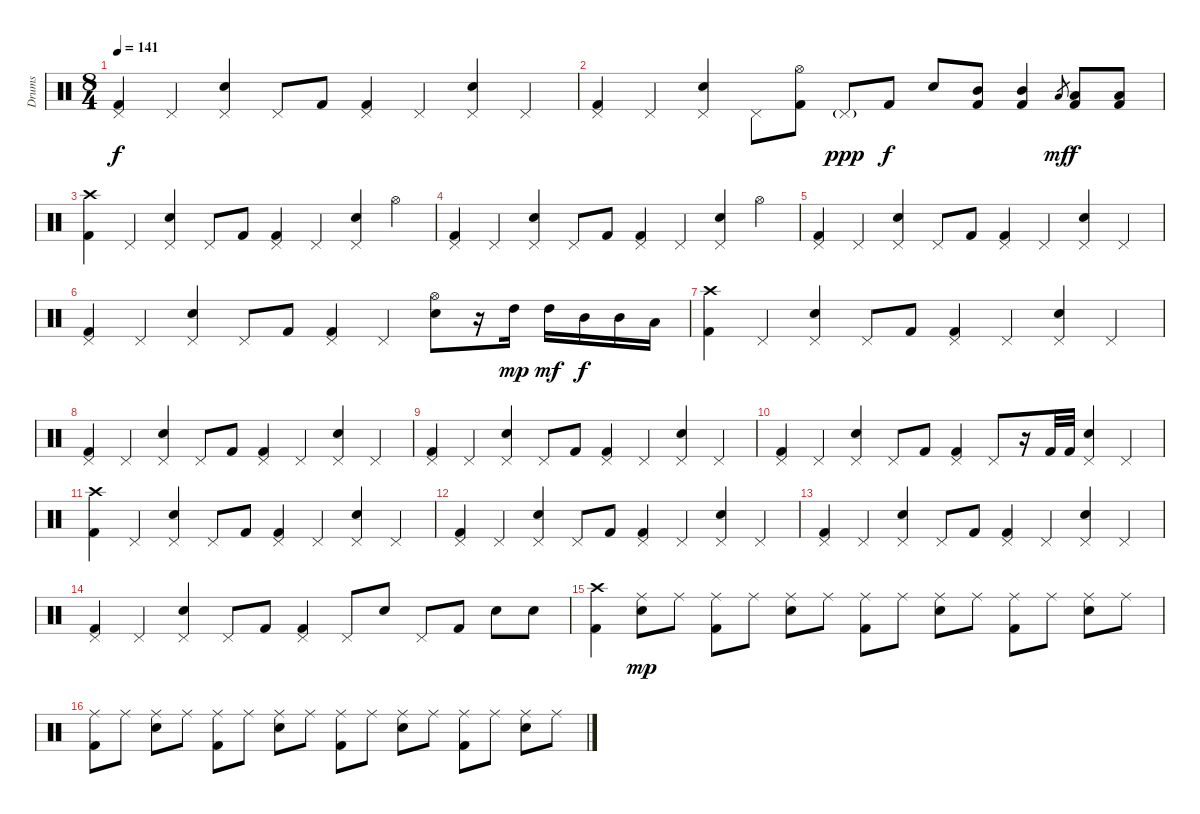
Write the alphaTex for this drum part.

\track ("Drums" "Drums") {instrument percussion}
\staff {score}
\articulation defaults
\ts (8 4)
\tempo 141
\clef neutral
\ks c
("Pedal Hi-Hat (hit)" "Kick (hit) 2").4{dy f} "Pedal Hi-Hat (hit)".4 ("Pedal Hi-Hat (hit)" "Snare (hit) 2").4 "Pedal Hi-Hat (hit)".8 "Kick (hit) 2".8 ("Pedal Hi-Hat (hit)" "Kick (hit) 2").4 "Pedal Hi-Hat (hit)".4 ("Pedal Hi-Hat (hit)" "Snare (hit) 2").4 "Pedal Hi-Hat (hit)".4 |
("Pedal Hi-Hat (hit)" "Kick (hit) 2").4 "Pedal Hi-Hat (hit)".4 ("Pedal Hi-Hat (hit)" "Snare (hit) 2").4 "Pedal Hi-Hat (hit)".8 ("Hi-Hat (open)" "Kick (hit) 2").8 "Pedal Hi-Hat (hit)"{g}.8{dy ppp} "Kick (hit) 2".8{dy f} "Snare (hit) 2".8 ("Mid Tom (hit)" "Kick (hit) 2").8 ("Mid Tom (hit)" "Kick (hit) 2").4 "Low Tom (hit)".8{gr dy mf} ("Low Tom (hit)" "Kick (hit) 2").8{dy f} ("Low Tom (hit)" "Kick (hit) 2").8 |
("Crash high (hit)" "Kick (hit) 2").4 "Pedal Hi-Hat (hit)".4 ("Pedal Hi-Hat (hit)" "Snare (hit) 2").4 "Pedal Hi-Hat (hit)".8 "Kick (hit) 2".8 ("Pedal Hi-Hat (hit)" "Kick (hit) 2").4 "Pedal Hi-Hat (hit)".4 ("Pedal Hi-Hat (hit)" "Snare (hit) 2").4 "Hi-Hat (open)".4 |
("Pedal Hi-Hat (hit)" "Kick (hit) 2").4 "Pedal Hi-Hat (hit)".4 ("Pedal Hi-Hat (hit)" "Snare (hit) 2").4 "Pedal Hi-Hat (hit)".8 "Kick (hit) 2".8 ("Pedal Hi-Hat (hit)" "Kick (hit) 2").4 "Pedal Hi-Hat (hit)".4 ("Pedal Hi-Hat (hit)" "Snare (hit) 2").4 "Hi-Hat (open)".4 |
("Pedal Hi-Hat (hit)" "Kick (hit) 2").4 "Pedal Hi-Hat (hit)".4 ("Pedal Hi-Hat (hit)" "Snare (hit) 2").4 "Pedal Hi-Hat (hit)".8 "Kick (hit) 2".8 ("Pedal Hi-Hat (hit)" "Kick (hit) 2").4 "Pedal Hi-Hat (hit)".4 ("Pedal Hi-Hat (hit)" "Snare (hit) 2").4 "Pedal Hi-Hat (hit)".4 |
("Pedal Hi-Hat (hit)" "Kick (hit) 2").4 "Pedal Hi-Hat (hit)".4 ("Pedal Hi-Hat (hit)" "Snare (hit) 2").4 "Pedal Hi-Hat (hit)".8 "Kick (hit) 2".8 ("Pedal Hi-Hat (hit)" "Kick (hit) 2").4 "Pedal Hi-Hat (hit)".4 ("Hi-Hat (open)" "Snare (hit) 2").8 r.16 "High Tom (hit)".16{dy mp} "High Tom (hit)".16{dy mf} "Mid Tom (hit)".16{dy f} "Mid Tom (hit)".16 "Low Tom (hit)".16 |
("Crash high (hit)" "Kick (hit) 2").4 "Pedal Hi-Hat (hit)".4 ("Pedal Hi-Hat (hit)" "Snare (hit) 2").4 "Pedal Hi-Hat (hit)".8 "Kick (hit) 2".8 ("Pedal Hi-Hat (hit)" "Kick (hit) 2").4 "Pedal Hi-Hat (hit)".4 ("Pedal Hi-Hat (hit)" "Snare (hit) 2").4 "Pedal Hi-Hat (hit)".4 |
("Pedal Hi-Hat (hit)" "Kick (hit) 2").4 "Pedal Hi-Hat (hit)".4 ("Pedal Hi-Hat (hit)" "Snare (hit) 2").4 "Pedal Hi-Hat (hit)".8 "Kick (hit) 2".8 ("Pedal Hi-Hat (hit)" "Kick (hit) 2").4 "Pedal Hi-Hat (hit)".4 ("Pedal Hi-Hat (hit)" "Snare (hit) 2").4 "Pedal Hi-Hat (hit)".4 |
("Pedal Hi-Hat (hit)" "Kick (hit) 2").4 "Pedal Hi-Hat (hit)".4 ("Pedal Hi-Hat (hit)" "Snare (hit) 2").4 "Pedal Hi-Hat (hit)".8 "Kick (hit) 2".8 ("Pedal Hi-Hat (hit)" "Kick (hit) 2").4 "Pedal Hi-Hat (hit)".4 ("Pedal Hi-Hat (hit)" "Snare (hit) 2").4 "Pedal Hi-Hat (hit)".4 |
("Pedal Hi-Hat (hit)" "Kick (hit) 2").4 "Pedal Hi-Hat (hit)".4 ("Pedal Hi-Hat (hit)" "Snare (hit) 2").4 "Pedal Hi-Hat (hit)".8 "Kick (hit) 2".8 ("Pedal Hi-Hat (hit)" "Kick (hit) 2").4 "Pedal Hi-Hat (hit)".8 r.16 "Kick (hit) 2".32 "Kick (hit) 2".32 ("Pedal Hi-Hat (hit)" "Snare (hit) 2").4 "Pedal Hi-Hat (hit)".4 |
("Crash high (hit)" "Kick (hit) 2").4 "Pedal Hi-Hat (hit)".4 ("Pedal Hi-Hat (hit)" "Snare (hit) 2").4 "Pedal Hi-Hat (hit)".8 "Kick (hit) 2".8 ("Pedal Hi-Hat (hit)" "Kick (hit) 2").4 "Pedal Hi-Hat (hit)".4 ("Pedal Hi-Hat (hit)" "Snare (hit) 2").4 "Pedal Hi-Hat (hit)".4 |
("Pedal Hi-Hat (hit)" "Kick (hit) 2").4 "Pedal Hi-Hat (hit)".4 ("Pedal Hi-Hat (hit)" "Snare (hit) 2").4 "Pedal Hi-Hat (hit)".8 "Kick (hit) 2".8 ("Pedal Hi-Hat (hit)" "Kick (hit) 2").4 "Pedal Hi-Hat (hit)".4 ("Pedal Hi-Hat (hit)" "Snare (hit) 2").4 "Pedal Hi-Hat (hit)".4 |
("Pedal Hi-Hat (hit)" "Kick (hit) 2").4 "Pedal Hi-Hat (hit)".4 ("Pedal Hi-Hat (hit)" "Snare (hit) 2").4 "Pedal Hi-Hat (hit)".8 "Kick (hit) 2".8 ("Pedal Hi-Hat (hit)" "Kick (hit) 2").4 "Pedal Hi-Hat (hit)".4 ("Pedal Hi-Hat (hit)" "Snare (hit) 2").4 "Pedal Hi-Hat (hit)".4 |
("Pedal Hi-Hat (hit)" "Kick (hit) 2").4 "Pedal Hi-Hat (hit)".4 ("Pedal Hi-Hat (hit)" "Snare (hit) 2").4 "Pedal Hi-Hat (hit)".8 "Kick (hit) 2".8 ("Pedal Hi-Hat (hit)" "Kick (hit) 2").4 "Pedal Hi-Hat (hit)".8 "Snare (hit) 2".8 "Pedal Hi-Hat (hit)".8 "Kick (hit) 2".8 "Snare (hit) 2".8 "Snare (hit) 2".8 |
("Crash high (hit)" "Kick (hit) 2").4 ("Ride (middle)" "Snare (hit) 2").8{dy mp} "Ride (middle)".8 ("Ride (middle)" "Kick (hit) 2").8 "Ride (middle)".8 ("Ride (middle)" "Snare (hit) 2").8 "Ride (middle)".8 ("Ride (middle)" "Kick (hit) 2").8 "Ride (middle)".8 ("Ride (middle)" "Snare (hit) 2").8 "Ride (middle)".8 ("Ride (middle)" "Kick (hit) 2").8 "Ride (middle)".8 ("Ride (middle)" "Snare (hit) 2").8 "Ride (middle)".8 |
("Ride (middle)" "Kick (hit) 2").8 "Ride (middle)".8 ("Ride (middle)" "Snare (hit) 2").8 "Ride (middle)".8 ("Ride (middle)" "Kick (hit) 2").8 "Ride (middle)".8 ("Ride (middle)" "Snare (hit) 2").8 "Ride (middle)".8 ("Ride (middle)" "Kick (hit) 2").8 "Ride (middle)".8 ("Ride (middle)" "Snare (hit) 2").8 "Ride (middle)".8 ("Ride (middle)" "Kick (hit) 2").8 "Ride (middle)".8 ("Ride (middle)" "Snare (hit) 2").8 "Ride (middle)".8
